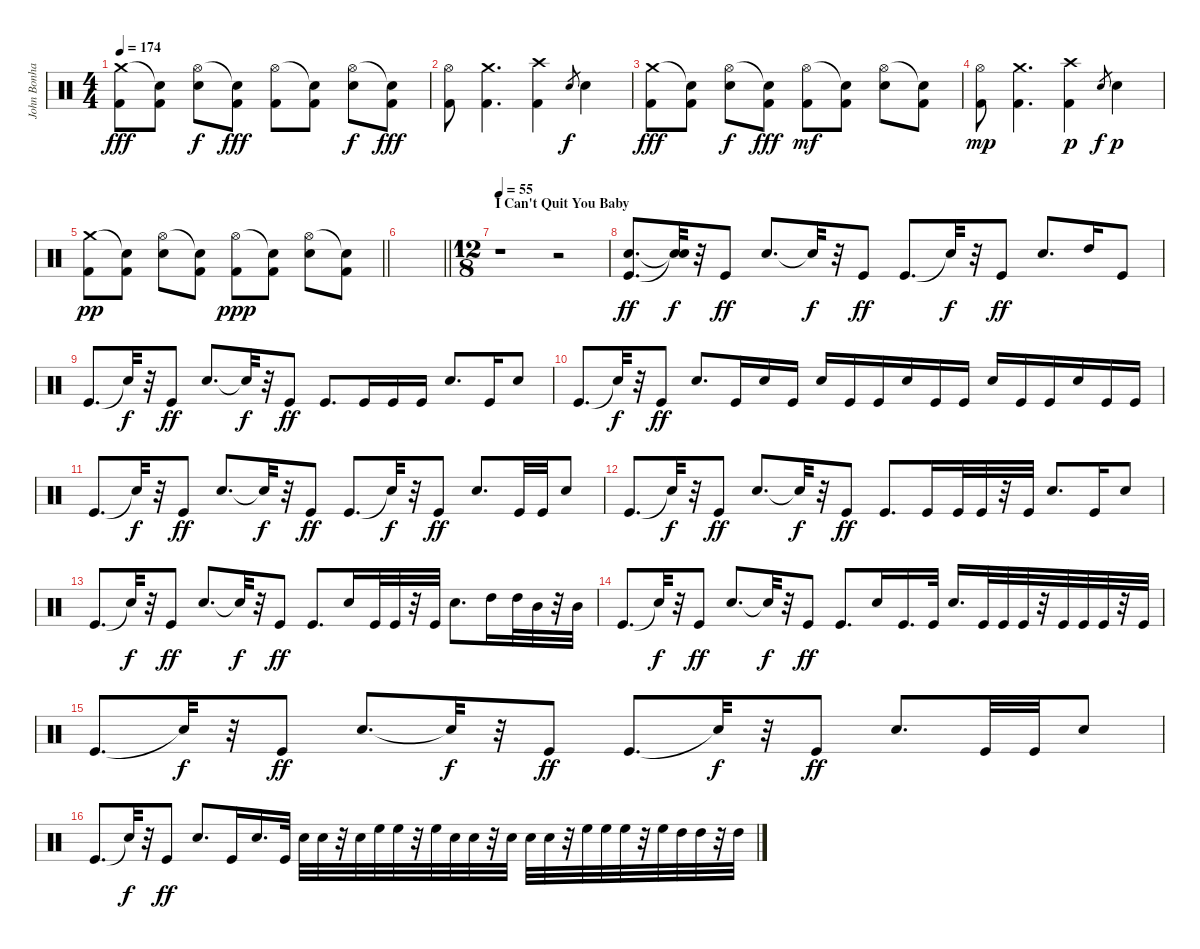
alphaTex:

\track ("John Bonham - Drums" "John Bonha") {instrument percussion}
\staff {score}
\articulation defaults
\ts (4 4)
\tempo 174
\clef neutral
\ks c
("Crash medium (hit)" "Kick (hit) 2").8{dy fff} ("Snare (hit)"{t} "Kick (hit) 2").8 ("Hi-Hat (open)" "Snare (hit) 2").8{dy f} ("Snare (hit)"{t} "Kick (hit) 2").8{dy fff} ("Hi-Hat (open)" "Kick (hit) 2").8 ("Snare (hit)"{t} "Kick (hit) 2").8 ("Hi-Hat (open)" "Snare (hit) 2").8{dy f} ("Snare (hit)"{t} "Kick (hit) 2").8{dy fff} |
("Hi-Hat (open)" "Kick (hit) 2").8 ("Crash medium (hit)" "Kick (hit) 2").4{d} ("Crash high (hit)" "Kick (hit) 2").4 "Snare (hit) 2".8{gr dy f} "Snare (hit) 2".4 |
("Crash medium (hit)" "Kick (hit) 2").8{dy fff} ("Snare (hit)"{t} "Kick (hit) 2").8 ("Hi-Hat (open)" "Snare (hit) 2").8{dy f} ("Snare (hit)"{t} "Kick (hit) 2").8{dy fff} ("Hi-Hat (open)" "Kick (hit) 2").8{dy mf} ("Snare (hit)"{t} "Kick (hit) 2").8 ("Hi-Hat (open)" "Snare (hit) 2").8 ("Snare (hit)"{t} "Kick (hit) 2").8 |
("Hi-Hat (open)" "Kick (hit) 2").8{dy mp} ("Crash medium (hit)" "Kick (hit) 2").4{d} ("Crash high (hit)" "Kick (hit) 2").4{dy p} "Snare (hit) 2".8{gr dy f} "Snare (hit) 2".4{dy p} |
\barLineRight lightlight
("Crash medium (hit)" "Kick (hit) 2").8{dy pp} ("Snare (hit)"{t} "Kick (hit) 2").8 ("Hi-Hat (open)" "Snare (hit) 2").8 ("Snare (hit)"{t} "Kick (hit) 2").8 ("Hi-Hat (open)" "Kick (hit) 2").8{dy ppp} ("Snare (hit)"{t} "Kick (hit) 2").8 ("Hi-Hat (open)" "Snare (hit) 2").8 ("Snare (hit)"{t} "Kick (hit) 2").8 |
\barLineRight lightlight
|
\ts (12 8)
\section ("" "I Can't Quit You Baby")
\tempo 55
r.1{volume 15 balance 8} r.2 |
("Kick (hit)" "Snare (hit) 2").8{d dy ff} ("Snare (hit)"{t} "Snare (hit)"{t}).32{dy f} r.32 "Kick (hit)".8{dy ff} "Snare (hit) 2".8{d} "Snare (hit)"{t}.32{dy f} r.32 "Kick (hit)".8{dy ff} "Kick (hit)".8{d} "Snare (hit)"{t}.32{dy f} r.32 "Kick (hit)".8{dy ff} "Snare (hit) 2".8{d} "High Tom (hit)".16 "Kick (hit)".8 |
"Kick (hit)".8{d} "Snare (hit)"{t}.32{dy f} r.32 "Kick (hit)".8{dy ff} "Snare (hit) 2".8{d} "Snare (hit)"{t}.32{dy f} r.32 "Kick (hit)".8{dy ff} "Kick (hit)".8{d} "Kick (hit)".16 "Kick (hit)".16 "Kick (hit)".16 "Snare (hit) 2".8{d} "Kick (hit)".16 "Snare (hit) 2".8 |
"Kick (hit)".8{d} "Snare (hit)"{t}.32{dy f} r.32 "Kick (hit)".8{dy ff} "Snare (hit) 2".8{d} "Kick (hit)".16 "Snare (hit) 2".16 "Kick (hit)".16 "Snare (hit) 2".16 "Kick (hit)".16 "Kick (hit)".16 "Snare (hit) 2".16 "Kick (hit)".16 "Kick (hit)".16 "Snare (hit) 2".16 "Kick (hit)".16 "Kick (hit)".16 "Snare (hit) 2".16 "Kick (hit)".16 "Kick (hit)".16 |
"Kick (hit)".8{d} "Snare (hit)"{t}.32{dy f} r.32 "Kick (hit)".8{dy ff} "Snare (hit) 2".8{d} "Snare (hit)"{t}.32{dy f} r.32 "Kick (hit)".8{dy ff} "Kick (hit)".8{d} "Snare (hit)"{t}.32{dy f} r.32 "Kick (hit)".8{dy ff} "Snare (hit) 2".8{d} "Kick (hit)".32 "Kick (hit)".32 "Snare (hit) 2".8 |
"Kick (hit)".8{d} "Snare (hit)"{t}.32{dy f} r.32 "Kick (hit)".8{dy ff} "Snare (hit) 2".8{d} "Snare (hit)"{t}.32{dy f} r.32 "Kick (hit)".8{dy ff} "Kick (hit)".8{d} "Kick (hit)".16 "Kick (hit)".32 "Kick (hit)".32 r.32 "Kick (hit)".32 "Snare (hit) 2".8{d} "Kick (hit)".16 "Snare (hit) 2".8 |
"Kick (hit)".8{d} "Snare (hit)"{t}.32{dy f} r.32 "Kick (hit)".8{dy ff} "Snare (hit) 2".8{d} "Snare (hit)"{t}.32{dy f} r.32 "Kick (hit)".8{dy ff} "Kick (hit)".8{d} "Snare (hit) 2".16 "Kick (hit)".32 "Kick (hit)".32 r.32 "Kick (hit)".32 "Snare (hit) 2".8{d} "High Tom (hit)".16 "High Tom (hit)".32 "Mid Tom (hit)".32 r.32 "Mid Tom (hit)".32 |
"Kick (hit)".8{d} "Snare (hit)"{t}.32{dy f} r.32 "Kick (hit)".8{dy ff} "Snare (hit) 2".8{d} "Snare (hit)"{t}.32{dy f} r.32 "Kick (hit)".8{dy ff} "Kick (hit)".8{d} "Snare (hit) 2".16 "Kick (hit)".16{d} "Kick (hit)".32 "Snare (hit) 2".16{d} "Kick (hit)".32 "Kick (hit)".32 "Kick (hit)".32 r.32 "Kick (hit)".32 "Kick (hit)".32 "Kick (hit)".32 r.32 "Kick (hit)".32 |
"Kick (hit)".8{d} "Snare (hit)"{t}.32{dy f} r.32 "Kick (hit)".8{dy ff} "Snare (hit) 2".8{d} "Snare (hit)"{t}.32{dy f} r.32 "Kick (hit)".8{dy ff} "Kick (hit)".8{d} "Snare (hit)"{t}.32{dy f} r.32 "Kick (hit)".8{dy ff} "Snare (hit) 2".8{d} "Kick (hit)".32 "Kick (hit)".32 "Snare (hit) 2".8 |
"Kick (hit)".8{d} "Snare (hit)"{t}.32{dy f} r.32 "Kick (hit)".8{dy ff} "Snare (hit) 2".8{d} "Kick (hit)".16 "Snare (hit) 2".16{d} "Kick (hit)".32 "Snare (hit) 2".32 "Snare (hit) 2".32 r.32 "Snare (hit) 2".32 "High Floor Tom (hit)".32 "High Floor Tom (hit)".32 r.32 "High Floor Tom (hit)".32 "Snare (hit) 2".32 "Snare (hit) 2".32 r.32 "Snare (hit) 2".32 "Snare (hit) 2".32 "Snare (hit) 2".32 r.32 "High Floor Tom (hit)".32 "High Floor Tom (hit)".32 "High Floor Tom (hit)".32 r.32 "High Floor Tom (hit)".32 "High Tom (hit)".32 "High Tom (hit)".32 r.32 "High Tom (hit)".32
